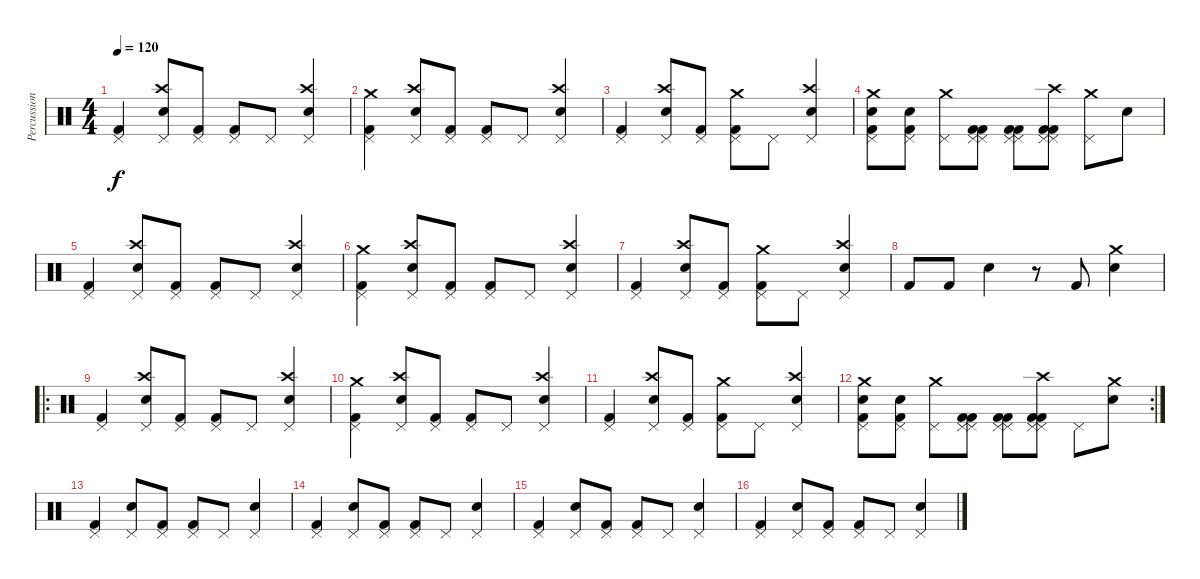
\track ("Percussion" "Percussion") {instrument percussion}
\staff {score}
\articulation defaults
\ts (4 4)
\tempo 120
\clef neutral
\ks c
("Pedal Hi-Hat (hit)" "Kick (hit) 2").4{dy f} ("Pedal Hi-Hat (hit)" "Crash high (hit)" "Electric Snare (hit)").8 ("Pedal Hi-Hat (hit)" "Kick (hit) 2").8 ("Pedal Hi-Hat (hit)" "Kick (hit) 2").8 "Pedal Hi-Hat (hit)".8 ("Pedal Hi-Hat (hit)" "Electric Snare (hit)" "Crash high (hit)").4 |
("Pedal Hi-Hat (hit)" "Crash medium (hit)" "Kick (hit) 2").4 ("Pedal Hi-Hat (hit)" "Crash high (hit)" "Electric Snare (hit)").8 ("Pedal Hi-Hat (hit)" "Kick (hit) 2").8 ("Pedal Hi-Hat (hit)" "Kick (hit) 2").8 "Pedal Hi-Hat (hit)".8 ("Pedal Hi-Hat (hit)" "Electric Snare (hit)" "Crash high (hit)").4 |
("Pedal Hi-Hat (hit)" "Kick (hit) 2").4 ("Pedal Hi-Hat (hit)" "Crash high (hit)" "Electric Snare (hit)").8 ("Pedal Hi-Hat (hit)" "Kick (hit) 2").8 ("Pedal Hi-Hat (hit)" "Crash medium (hit)" "Kick (hit) 2").8 "Pedal Hi-Hat (hit)".8 ("Pedal Hi-Hat (hit)" "Electric Snare (hit)" "Crash high (hit)").4 |
("Pedal Hi-Hat (hit)" "Crash medium (hit)" "Electric Snare (hit)" "Kick (hit) 2").8 ("Pedal Hi-Hat (hit)" "Electric Snare (hit)" "Kick (hit) 2").8 ("Pedal Hi-Hat (hit)" "Crash medium (hit)").8 ("Pedal Hi-Hat (hit)" "Pedal Hi-Hat (hit)" "Kick (hit) 2" "Kick (hit) 2").8 ("Pedal Hi-Hat (hit)" "Pedal Hi-Hat (hit)" "Kick (hit) 2" "Kick (hit) 2").8 ("Pedal Hi-Hat (hit)" "Crash high (hit)" "Pedal Hi-Hat (hit)" "Kick (hit) 2" "Kick (hit) 2").8 ("Pedal Hi-Hat (hit)" "Crash medium (hit)").8 "Snare (hit)"{x}.8 |
("Pedal Hi-Hat (hit)" "Kick (hit) 2").4 ("Pedal Hi-Hat (hit)" "Crash high (hit)" "Electric Snare (hit)").8 ("Pedal Hi-Hat (hit)" "Kick (hit) 2").8 ("Pedal Hi-Hat (hit)" "Kick (hit) 2").8 "Pedal Hi-Hat (hit)".8 ("Pedal Hi-Hat (hit)" "Electric Snare (hit)" "Crash high (hit)").4 |
("Pedal Hi-Hat (hit)" "Crash medium (hit)" "Kick (hit) 2").4 ("Pedal Hi-Hat (hit)" "Crash high (hit)" "Electric Snare (hit)").8 ("Pedal Hi-Hat (hit)" "Kick (hit) 2").8 ("Pedal Hi-Hat (hit)" "Kick (hit) 2").8 "Pedal Hi-Hat (hit)".8 ("Pedal Hi-Hat (hit)" "Electric Snare (hit)" "Crash high (hit)").4 |
("Pedal Hi-Hat (hit)" "Kick (hit) 2").4 ("Pedal Hi-Hat (hit)" "Crash high (hit)" "Electric Snare (hit)").8 ("Pedal Hi-Hat (hit)" "Kick (hit) 2").8 ("Pedal Hi-Hat (hit)" "Crash medium (hit)" "Kick (hit) 2").8 "Pedal Hi-Hat (hit)".8 ("Pedal Hi-Hat (hit)" "Electric Snare (hit)" "Crash high (hit)").4 |
"Kick (hit) 2".8 "Kick (hit) 2".8 "Electric Snare (hit)".4 r.8 "Kick (hit) 2".8 ("Crash medium (hit)" "Electric Snare (hit)").4 |
\ro
("Pedal Hi-Hat (hit)" "Kick (hit) 2").4 ("Pedal Hi-Hat (hit)" "Crash high (hit)" "Electric Snare (hit)").8 ("Pedal Hi-Hat (hit)" "Kick (hit) 2").8 ("Pedal Hi-Hat (hit)" "Kick (hit) 2").8 "Pedal Hi-Hat (hit)".8 ("Pedal Hi-Hat (hit)" "Electric Snare (hit)" "Crash high (hit)").4 |
("Pedal Hi-Hat (hit)" "Crash medium (hit)" "Kick (hit) 2").4 ("Pedal Hi-Hat (hit)" "Crash high (hit)" "Electric Snare (hit)").8 ("Pedal Hi-Hat (hit)" "Kick (hit) 2").8 ("Pedal Hi-Hat (hit)" "Kick (hit) 2").8 "Pedal Hi-Hat (hit)".8 ("Pedal Hi-Hat (hit)" "Electric Snare (hit)" "Crash high (hit)").4 |
("Pedal Hi-Hat (hit)" "Kick (hit) 2").4 ("Pedal Hi-Hat (hit)" "Crash high (hit)" "Electric Snare (hit)").8 ("Pedal Hi-Hat (hit)" "Kick (hit) 2").8 ("Pedal Hi-Hat (hit)" "Crash medium (hit)" "Kick (hit) 2").8 "Pedal Hi-Hat (hit)".8 ("Pedal Hi-Hat (hit)" "Electric Snare (hit)" "Crash high (hit)").4 |
\rc 2
("Pedal Hi-Hat (hit)" "Crash medium (hit)" "Electric Snare (hit)" "Kick (hit) 2").8 ("Pedal Hi-Hat (hit)" "Electric Snare (hit)" "Kick (hit) 2").8 ("Pedal Hi-Hat (hit)" "Crash medium (hit)").8 ("Pedal Hi-Hat (hit)" "Pedal Hi-Hat (hit)" "Kick (hit) 2" "Kick (hit) 2").8 ("Pedal Hi-Hat (hit)" "Pedal Hi-Hat (hit)" "Kick (hit) 2" "Kick (hit) 2").8 ("Pedal Hi-Hat (hit)" "Crash high (hit)" "Pedal Hi-Hat (hit)" "Kick (hit) 2" "Kick (hit) 2").8 "Pedal Hi-Hat (hit)".8 ("Crash medium (hit)" "Snare (hit)"{x}).8 |
("Pedal Hi-Hat (hit)" "Kick (hit) 2").4 ("Pedal Hi-Hat (hit)" "Electric Snare (hit)").8 ("Pedal Hi-Hat (hit)" "Kick (hit) 2").8 ("Pedal Hi-Hat (hit)" "Kick (hit) 2").8 "Pedal Hi-Hat (hit)".8 ("Pedal Hi-Hat (hit)" "Electric Snare (hit)").4 |
("Pedal Hi-Hat (hit)" "Kick (hit) 2").4 ("Pedal Hi-Hat (hit)" "Electric Snare (hit)").8 ("Pedal Hi-Hat (hit)" "Kick (hit) 2").8 ("Pedal Hi-Hat (hit)" "Kick (hit) 2").8 "Pedal Hi-Hat (hit)".8 ("Pedal Hi-Hat (hit)" "Electric Snare (hit)").4 |
("Pedal Hi-Hat (hit)" "Kick (hit) 2").4 ("Pedal Hi-Hat (hit)" "Electric Snare (hit)").8 ("Pedal Hi-Hat (hit)" "Kick (hit) 2").8 ("Pedal Hi-Hat (hit)" "Kick (hit) 2").8 "Pedal Hi-Hat (hit)".8 ("Pedal Hi-Hat (hit)" "Electric Snare (hit)").4 |
("Pedal Hi-Hat (hit)" "Kick (hit) 2").4 ("Pedal Hi-Hat (hit)" "Electric Snare (hit)").8 ("Pedal Hi-Hat (hit)" "Kick (hit) 2").8 ("Pedal Hi-Hat (hit)" "Kick (hit) 2").8 "Pedal Hi-Hat (hit)".8 ("Pedal Hi-Hat (hit)" "Electric Snare (hit)").4
